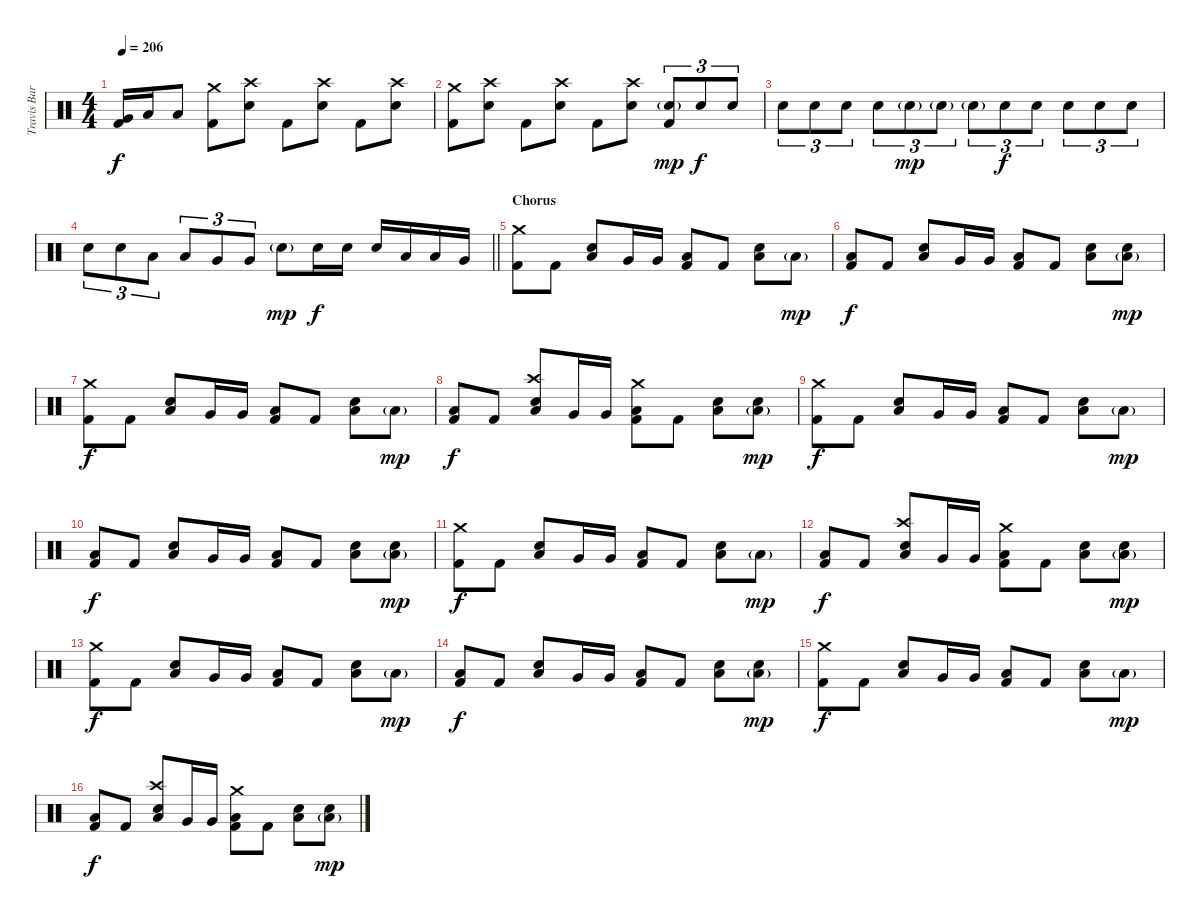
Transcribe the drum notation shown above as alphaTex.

\track ("Travis Barker - Drums" "Travis Bar") {instrument percussion}
\staff {score}
\articulation defaults
\ts (4 4)
\tempo 206
\clef neutral
\ks c
("Very Low Tom (hit)" "Kick (hit) 2").16{dy f} "Low Floor Tom (hit)".16 "Low Floor Tom (hit)".8 ("Crash medium (hit)" "Kick (hit) 2").8 ("Crash high (hit)" "Electric Snare (hit)").8 "Kick (hit) 2".8 ("Crash high (hit)" "Electric Snare (hit)").8 "Kick (hit) 2".8 ("Crash high (hit)" "Electric Snare (hit)").8 |
("Crash medium (hit)" "Kick (hit) 2").8 ("Crash high (hit)" "Electric Snare (hit)").8 "Kick (hit) 2".8 ("Crash high (hit)" "Electric Snare (hit)").8 "Kick (hit) 2".8 ("Crash high (hit)" "Electric Snare (hit)").8 ("Electric Snare (hit)"{g} "Kick (hit) 2").8{tu (3 2) dy mp} "Electric Snare (hit)".8{tu (3 2) dy f} "Electric Snare (hit)".8{tu (3 2)} |
"Electric Snare (hit)".8{tu (3 2)} "Electric Snare (hit)".8{tu (3 2)} "Electric Snare (hit)".8{tu (3 2)} "Electric Snare (hit)".8{tu (3 2)} "Electric Snare (hit)"{g}.8{tu (3 2) dy mp} "Electric Snare (hit)"{g}.8{tu (3 2)} "Electric Snare (hit)"{g}.8{tu (3 2)} "Electric Snare (hit)".8{tu (3 2) dy f} "Electric Snare (hit)".8{tu (3 2)} "Electric Snare (hit)".8{tu (3 2)} "Electric Snare (hit)".8{tu (3 2)} "Electric Snare (hit)".8{tu (3 2)} |
\barLineRight lightlight "Electric Snare (hit)".8{tu (3 2)} "Electric Snare (hit)".8{tu (3 2)} "Low Tom (hit)".8{tu (3 2)} "Low Tom (hit)".8{tu (3 2)} "Very Low Tom (hit)".8{tu (3 2)} "Very Low Tom (hit)".8{tu (3 2)} "Electric Snare (hit)"{g}.8{dy mp} "Electric Snare (hit)".16{dy f} "Electric Snare (hit)".16 "Electric Snare (hit)".16 "Low Tom (hit)".16 "Low Tom (hit)".16 "Very Low Tom (hit)".16
|
\section ("" "Chorus")
("Crash medium (hit)" "Kick (hit) 2").8 "Kick (hit) 2".8 ("Low Floor Tom (hit)" "Electric Snare (hit)").8 "Very Low Tom (hit)".16 "Very Low Tom (hit)".16 ("Low Floor Tom (hit)" "Kick (hit) 2").8 "Kick (hit) 2".8 ("Low Floor Tom (hit)" "Electric Snare (hit)").8 "Low Floor Tom (hit)"{g}.8{dy mp} |
("Low Floor Tom (hit)" "Kick (hit) 2").8{dy f} "Kick (hit) 2".8 ("Low Floor Tom (hit)" "Electric Snare (hit)").8 "Very Low Tom (hit)".16 "Very Low Tom (hit)".16 ("Low Floor Tom (hit)" "Kick (hit) 2").8 "Kick (hit) 2".8 ("Low Floor Tom (hit)" "Electric Snare (hit)").8 ("Low Floor Tom (hit)"{g} "Electric Snare (hit)").8{dy mp} |
("Crash medium (hit)" "Kick (hit) 2").8{dy f} "Kick (hit) 2".8 ("Low Floor Tom (hit)" "Electric Snare (hit)").8 "Very Low Tom (hit)".16 "Very Low Tom (hit)".16 ("Low Floor Tom (hit)" "Kick (hit) 2").8 "Kick (hit) 2".8 ("Low Floor Tom (hit)" "Electric Snare (hit)").8 "Low Floor Tom (hit)"{g}.8{dy mp} |
("Low Floor Tom (hit)" "Kick (hit) 2").8{dy f} "Kick (hit) 2".8 ("Crash high (hit)" "Low Floor Tom (hit)" "Electric Snare (hit)").8 "Very Low Tom (hit)".16 "Very Low Tom (hit)".16 ("Crash medium (hit)" "Low Floor Tom (hit)" "Kick (hit) 2").8 "Kick (hit) 2".8 ("Low Floor Tom (hit)" "Electric Snare (hit)").8 ("Low Floor Tom (hit)"{g} "Electric Snare (hit)").8{dy mp} |
("Crash medium (hit)" "Kick (hit) 2").8{dy f} "Kick (hit) 2".8 ("Low Floor Tom (hit)" "Electric Snare (hit)").8 "Very Low Tom (hit)".16 "Very Low Tom (hit)".16 ("Low Floor Tom (hit)" "Kick (hit) 2").8 "Kick (hit) 2".8 ("Low Floor Tom (hit)" "Electric Snare (hit)").8 "Low Floor Tom (hit)"{g}.8{dy mp} |
("Low Floor Tom (hit)" "Kick (hit) 2").8{dy f} "Kick (hit) 2".8 ("Low Floor Tom (hit)" "Electric Snare (hit)").8 "Very Low Tom (hit)".16 "Very Low Tom (hit)".16 ("Low Floor Tom (hit)" "Kick (hit) 2").8 "Kick (hit) 2".8 ("Low Floor Tom (hit)" "Electric Snare (hit)").8 ("Low Floor Tom (hit)"{g} "Electric Snare (hit)").8{dy mp} |
("Crash medium (hit)" "Kick (hit) 2").8{dy f} "Kick (hit) 2".8 ("Low Floor Tom (hit)" "Electric Snare (hit)").8 "Very Low Tom (hit)".16 "Very Low Tom (hit)".16 ("Low Floor Tom (hit)" "Kick (hit) 2").8 "Kick (hit) 2".8 ("Low Floor Tom (hit)" "Electric Snare (hit)").8 "Low Floor Tom (hit)"{g}.8{dy mp} |
("Low Floor Tom (hit)" "Kick (hit) 2").8{dy f} "Kick (hit) 2".8 ("Crash high (hit)" "Low Floor Tom (hit)" "Electric Snare (hit)").8 "Very Low Tom (hit)".16 "Very Low Tom (hit)".16 ("Crash medium (hit)" "Low Floor Tom (hit)" "Kick (hit) 2").8 "Kick (hit) 2".8 ("Low Floor Tom (hit)" "Electric Snare (hit)").8 ("Low Floor Tom (hit)"{g} "Electric Snare (hit)").8{dy mp} |
("Crash medium (hit)" "Kick (hit) 2").8{dy f} "Kick (hit) 2".8 ("Low Floor Tom (hit)" "Electric Snare (hit)").8 "Very Low Tom (hit)".16 "Very Low Tom (hit)".16 ("Low Floor Tom (hit)" "Kick (hit) 2").8 "Kick (hit) 2".8 ("Low Floor Tom (hit)" "Electric Snare (hit)").8 "Low Floor Tom (hit)"{g}.8{dy mp} |
("Low Floor Tom (hit)" "Kick (hit) 2").8{dy f} "Kick (hit) 2".8 ("Low Floor Tom (hit)" "Electric Snare (hit)").8 "Very Low Tom (hit)".16 "Very Low Tom (hit)".16 ("Low Floor Tom (hit)" "Kick (hit) 2").8 "Kick (hit) 2".8 ("Low Floor Tom (hit)" "Electric Snare (hit)").8 ("Low Floor Tom (hit)"{g} "Electric Snare (hit)").8{dy mp} |
("Crash medium (hit)" "Kick (hit) 2").8{dy f} "Kick (hit) 2".8 ("Low Floor Tom (hit)" "Electric Snare (hit)").8 "Very Low Tom (hit)".16 "Very Low Tom (hit)".16 ("Low Floor Tom (hit)" "Kick (hit) 2").8 "Kick (hit) 2".8 ("Low Floor Tom (hit)" "Electric Snare (hit)").8 "Low Floor Tom (hit)"{g}.8{dy mp} |
("Low Floor Tom (hit)" "Kick (hit) 2").8{dy f} "Kick (hit) 2".8 ("Crash high (hit)" "Low Floor Tom (hit)" "Electric Snare (hit)").8 "Very Low Tom (hit)".16 "Very Low Tom (hit)".16 ("Crash medium (hit)" "Low Floor Tom (hit)" "Kick (hit) 2").8 "Kick (hit) 2".8 ("Low Floor Tom (hit)" "Electric Snare (hit)").8 ("Low Floor Tom (hit)"{g} "Electric Snare (hit)").8{dy mp}
